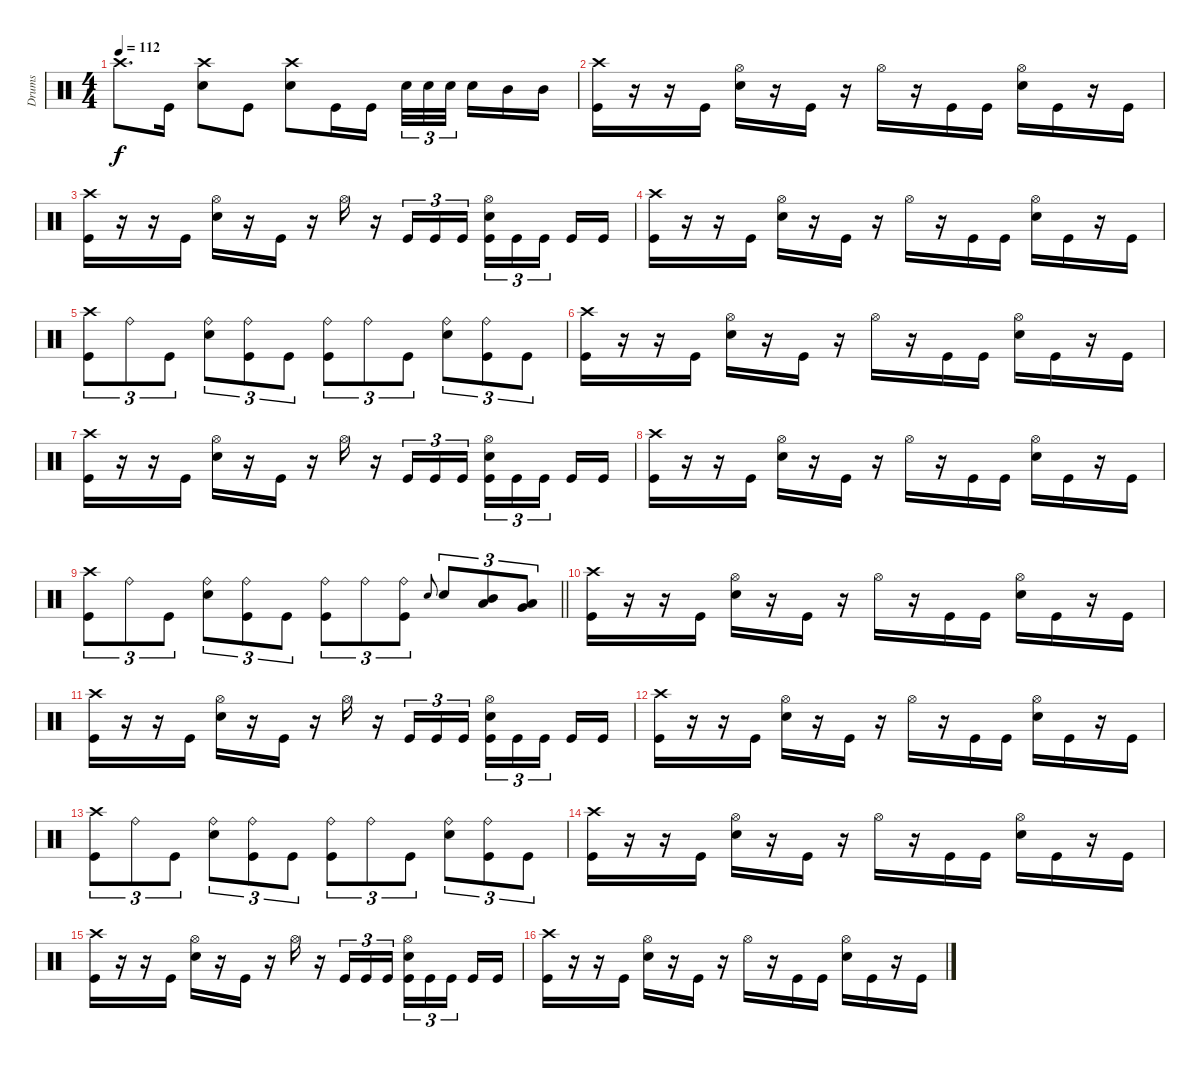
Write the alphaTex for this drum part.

\track ("Drums" "Drums") {instrument percussion}
\staff {score}
\articulation defaults
\ts (4 4)
\tempo 112
\clef neutral
\ks c "Crash high (hit)".8{d dy f} "Kick (hit)".16
("Crash high (hit)" "Snare (hit) 2").8 "Kick (hit)".8 ("Crash high (hit)" "Snare (hit) 2").8 "Kick (hit)".16 "Kick (hit)".16 "Snare (hit) 2".32{tu (3 2)} "Snare (hit) 2".32{tu (3 2)} "Snare (hit) 2".32{tu (3 2) beam splitsecondary} "Snare (hit) 2".16 "Mid Tom (hit)".16 "Mid Tom (hit)".16 |
("Crash high (hit)" "Kick (hit)").16 r.16 r.16 "Kick (hit)".16 ("Hi-Hat (open)" "Snare (hit) 2").16 r.16 "Kick (hit)".16 r.16 "Hi-Hat (open)".16 r.16 "Kick (hit)".16 "Kick (hit)".16 ("Hi-Hat (open)" "Snare (hit) 2").16 "Kick (hit)".16 r.16 "Kick (hit)".16 |
("Crash high (hit)" "Kick (hit)").16 r.16 r.16 "Kick (hit)".16 ("Hi-Hat (open)" "Snare (hit) 2").16 r.16 "Kick (hit)".16 r.16 "Hi-Hat (open)".16 r.16 "Kick (hit)".16{tu (3 2)} "Kick (hit)".16{tu (3 2)} "Kick (hit)".16{tu (3 2)} ("Hi-Hat (open)" "Snare (hit) 2" "Kick (hit)").16{tu (3 2)} "Kick (hit)".16{tu (3 2)} "Kick (hit)".16{tu (3 2) beam splitsecondary} "Kick (hit)".16 "Kick (hit)".16 |
("Crash high (hit)" "Kick (hit)").16 r.16 r.16 "Kick (hit)".16 ("Hi-Hat (open)" "Snare (hit) 2").16 r.16 "Kick (hit)".16 r.16 "Hi-Hat (open)".16 r.16 "Kick (hit)".16 "Kick (hit)".16 ("Hi-Hat (open)" "Snare (hit) 2").16 "Kick (hit)".16 r.16 "Kick (hit)".16 |
("Crash high (hit)" "Kick (hit)").8{tu (3 2)} "Ride (bell)".8{tu (3 2)} "Kick (hit)".8{tu (3 2)} ("Ride (bell)" "Snare (hit) 2").8{tu (3 2)} ("Ride (bell)" "Kick (hit)").8{tu (3 2)} "Kick (hit)".8{tu (3 2)} ("Ride (bell)" "Kick (hit)").8{tu (3 2)} "Ride (bell)".8{tu (3 2)} "Kick (hit)".8{tu (3 2)} ("Ride (bell)" "Snare (hit) 2").8{tu (3 2)} ("Ride (bell)" "Kick (hit)").8{tu (3 2)} "Kick (hit)".8{tu (3 2)} |
("Crash high (hit)" "Kick (hit)").16 r.16 r.16 "Kick (hit)".16 ("Hi-Hat (open)" "Snare (hit) 2").16 r.16 "Kick (hit)".16 r.16 "Hi-Hat (open)".16 r.16 "Kick (hit)".16 "Kick (hit)".16 ("Hi-Hat (open)" "Snare (hit) 2").16 "Kick (hit)".16 r.16 "Kick (hit)".16 |
("Crash high (hit)" "Kick (hit)").16 r.16 r.16 "Kick (hit)".16 ("Hi-Hat (open)" "Snare (hit) 2").16 r.16 "Kick (hit)".16 r.16 "Hi-Hat (open)".16 r.16 "Kick (hit)".16{tu (3 2)} "Kick (hit)".16{tu (3 2)} "Kick (hit)".16{tu (3 2)} ("Hi-Hat (open)" "Snare (hit) 2" "Kick (hit)").16{tu (3 2)} "Kick (hit)".16{tu (3 2)} "Kick (hit)".16{tu (3 2) beam splitsecondary} "Kick (hit)".16 "Kick (hit)".16 |
("Crash high (hit)" "Kick (hit)").16 r.16 r.16 "Kick (hit)".16 ("Hi-Hat (open)" "Snare (hit) 2").16 r.16 "Kick (hit)".16 r.16 "Hi-Hat (open)".16 r.16 "Kick (hit)".16 "Kick (hit)".16 ("Hi-Hat (open)" "Snare (hit) 2").16 "Kick (hit)".16 r.16 "Kick (hit)".16 |
\barLineRight lightlight
("Crash high (hit)" "Kick (hit)").8{tu (3 2)} "Ride (bell)".8{tu (3 2)} "Kick (hit)".8{tu (3 2)} ("Ride (bell)" "Snare (hit) 2").8{tu (3 2)} ("Ride (bell)" "Kick (hit)").8{tu (3 2)} "Kick (hit)".8{tu (3 2)} ("Ride (bell)" "Kick (hit)").8{tu (3 2)} "Ride (bell)".8{tu (3 2)} ("Ride (bell)" "Kick (hit)").8{tu (3 2)} "Snare (hit) 2".8{gr onbeat} "Snare (hit) 2".8{tu (3 2)} ("Mid Tom (hit)" "Low Tom (hit)").8{tu (3 2)} ("Low Tom (hit)" "Very Low Tom (hit)").8{tu (3 2)} |
("Crash high (hit)" "Kick (hit)").16 r.16 r.16 "Kick (hit)".16 ("Hi-Hat (open)" "Snare (hit) 2").16 r.16 "Kick (hit)".16 r.16 "Hi-Hat (open)".16 r.16 "Kick (hit)".16 "Kick (hit)".16 ("Hi-Hat (open)" "Snare (hit) 2").16 "Kick (hit)".16 r.16 "Kick (hit)".16 |
("Crash high (hit)" "Kick (hit)").16 r.16 r.16 "Kick (hit)".16 ("Hi-Hat (open)" "Snare (hit) 2").16 r.16 "Kick (hit)".16 r.16 "Hi-Hat (open)".16 r.16 "Kick (hit)".16{tu (3 2)} "Kick (hit)".16{tu (3 2)} "Kick (hit)".16{tu (3 2)} ("Hi-Hat (open)" "Snare (hit) 2" "Kick (hit)").16{tu (3 2)} "Kick (hit)".16{tu (3 2)} "Kick (hit)".16{tu (3 2) beam splitsecondary} "Kick (hit)".16 "Kick (hit)".16 |
("Crash high (hit)" "Kick (hit)").16 r.16 r.16 "Kick (hit)".16 ("Hi-Hat (open)" "Snare (hit) 2").16 r.16 "Kick (hit)".16 r.16 "Hi-Hat (open)".16 r.16 "Kick (hit)".16 "Kick (hit)".16 ("Hi-Hat (open)" "Snare (hit) 2").16 "Kick (hit)".16 r.16 "Kick (hit)".16 |
("Crash high (hit)" "Kick (hit)").8{tu (3 2)} "Ride (bell)".8{tu (3 2)} "Kick (hit)".8{tu (3 2)} ("Ride (bell)" "Snare (hit) 2").8{tu (3 2)} ("Ride (bell)" "Kick (hit)").8{tu (3 2)} "Kick (hit)".8{tu (3 2)} ("Ride (bell)" "Kick (hit)").8{tu (3 2)} "Ride (bell)".8{tu (3 2)} "Kick (hit)".8{tu (3 2)} ("Ride (bell)" "Snare (hit) 2").8{tu (3 2)} ("Ride (bell)" "Kick (hit)").8{tu (3 2)} "Kick (hit)".8{tu (3 2)} |
("Crash high (hit)" "Kick (hit)").16 r.16 r.16 "Kick (hit)".16 ("Hi-Hat (open)" "Snare (hit) 2").16 r.16 "Kick (hit)".16 r.16 "Hi-Hat (open)".16 r.16 "Kick (hit)".16 "Kick (hit)".16 ("Hi-Hat (open)" "Snare (hit) 2").16 "Kick (hit)".16 r.16 "Kick (hit)".16 |
("Crash high (hit)" "Kick (hit)").16 r.16 r.16 "Kick (hit)".16 ("Hi-Hat (open)" "Snare (hit) 2").16 r.16 "Kick (hit)".16 r.16 "Hi-Hat (open)".16 r.16 "Kick (hit)".16{tu (3 2)} "Kick (hit)".16{tu (3 2)} "Kick (hit)".16{tu (3 2)} ("Hi-Hat (open)" "Snare (hit) 2" "Kick (hit)").16{tu (3 2)} "Kick (hit)".16{tu (3 2)} "Kick (hit)".16{tu (3 2) beam splitsecondary} "Kick (hit)".16 "Kick (hit)".16 |
("Crash high (hit)" "Kick (hit)").16 r.16 r.16 "Kick (hit)".16 ("Hi-Hat (open)" "Snare (hit) 2").16 r.16 "Kick (hit)".16 r.16 "Hi-Hat (open)".16 r.16 "Kick (hit)".16 "Kick (hit)".16 ("Hi-Hat (open)" "Snare (hit) 2").16 "Kick (hit)".16 r.16 "Kick (hit)".16
